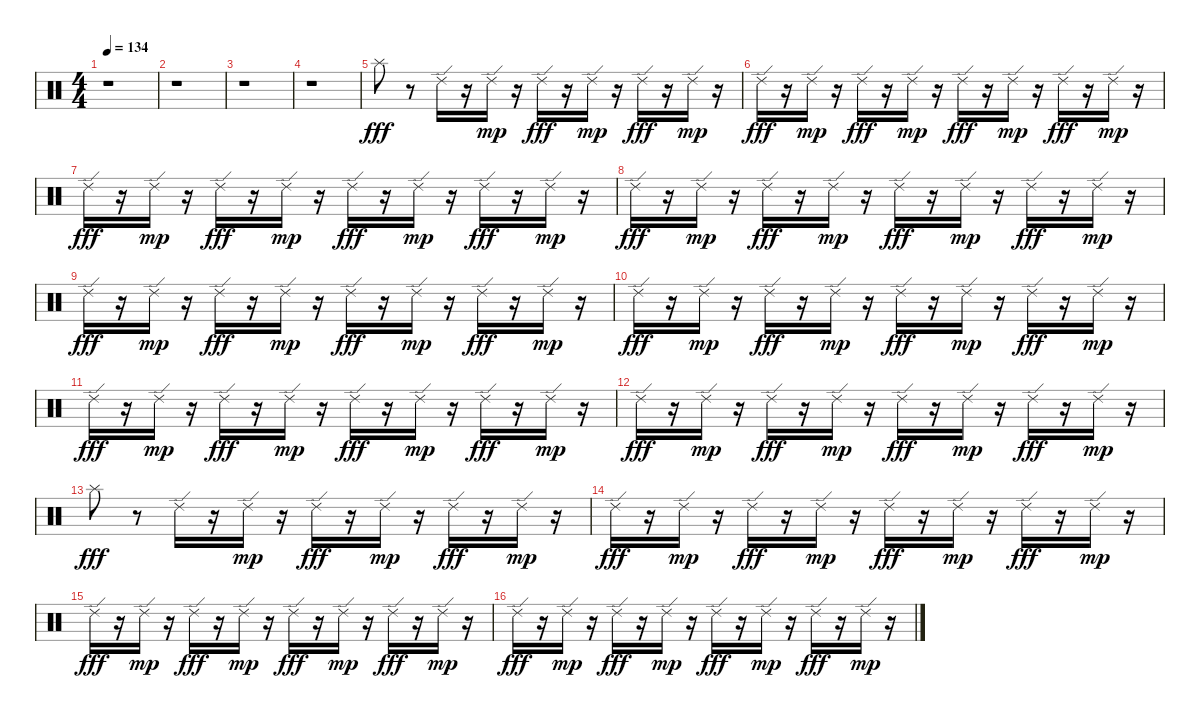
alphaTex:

\track "" {instrument percussion}
\staff {score}
\articulation defaults
\ts (4 4)
\tempo 134
\clef neutral
\ks c
r.1{dy fff} |
r.1 |
r.1 |
r.1 |
"Splash (hit)".8 r.8 "Ride (edge) 2".16 r.16 "Ride (edge) 2".16{dy mp} r.16 "Ride (edge) 2".16{dy fff} r.16 "Ride (edge) 2".16{dy mp} r.16 "Ride (edge) 2".16{dy fff} r.16 "Ride (edge) 2".16{dy mp} r.16 |
"Ride (edge) 2".16{dy fff} r.16 "Ride (edge) 2".16{dy mp} r.16 "Ride (edge) 2".16{dy fff} r.16 "Ride (edge) 2".16{dy mp} r.16 "Ride (edge) 2".16{dy fff} r.16 "Ride (edge) 2".16{dy mp} r.16 "Ride (edge) 2".16{dy fff} r.16 "Ride (edge) 2".16{dy mp} r.16 |
"Ride (edge) 2".16{dy fff} r.16 "Ride (edge) 2".16{dy mp} r.16 "Ride (edge) 2".16{dy fff} r.16 "Ride (edge) 2".16{dy mp} r.16 "Ride (edge) 2".16{dy fff} r.16 "Ride (edge) 2".16{dy mp} r.16 "Ride (edge) 2".16{dy fff} r.16 "Ride (edge) 2".16{dy mp} r.16 |
"Ride (edge) 2".16{dy fff} r.16 "Ride (edge) 2".16{dy mp} r.16 "Ride (edge) 2".16{dy fff} r.16 "Ride (edge) 2".16{dy mp} r.16 "Ride (edge) 2".16{dy fff} r.16 "Ride (edge) 2".16{dy mp} r.16 "Ride (edge) 2".16{dy fff} r.16 "Ride (edge) 2".16{dy mp} r.16 |
"Ride (edge) 2".16{dy fff} r.16 "Ride (edge) 2".16{dy mp} r.16 "Ride (edge) 2".16{dy fff} r.16 "Ride (edge) 2".16{dy mp} r.16 "Ride (edge) 2".16{dy fff} r.16 "Ride (edge) 2".16{dy mp} r.16 "Ride (edge) 2".16{dy fff} r.16 "Ride (edge) 2".16{dy mp} r.16 |
"Ride (edge) 2".16{dy fff} r.16 "Ride (edge) 2".16{dy mp} r.16 "Ride (edge) 2".16{dy fff} r.16 "Ride (edge) 2".16{dy mp} r.16 "Ride (edge) 2".16{dy fff} r.16 "Ride (edge) 2".16{dy mp} r.16 "Ride (edge) 2".16{dy fff} r.16 "Ride (edge) 2".16{dy mp} r.16 |
"Ride (edge) 2".16{dy fff} r.16 "Ride (edge) 2".16{dy mp} r.16 "Ride (edge) 2".16{dy fff} r.16 "Ride (edge) 2".16{dy mp} r.16 "Ride (edge) 2".16{dy fff} r.16 "Ride (edge) 2".16{dy mp} r.16 "Ride (edge) 2".16{dy fff} r.16 "Ride (edge) 2".16{dy mp} r.16 |
"Ride (edge) 2".16{dy fff} r.16 "Ride (edge) 2".16{dy mp} r.16 "Ride (edge) 2".16{dy fff} r.16 "Ride (edge) 2".16{dy mp} r.16 "Ride (edge) 2".16{dy fff} r.16 "Ride (edge) 2".16{dy mp} r.16 "Ride (edge) 2".16{dy fff} r.16 "Ride (edge) 2".16{dy mp} r.16 |
"Splash (hit)".8{dy fff} r.8 "Ride (edge) 2".16 r.16 "Ride (edge) 2".16{dy mp} r.16 "Ride (edge) 2".16{dy fff} r.16 "Ride (edge) 2".16{dy mp} r.16 "Ride (edge) 2".16{dy fff} r.16 "Ride (edge) 2".16{dy mp} r.16 |
"Ride (edge) 2".16{dy fff} r.16 "Ride (edge) 2".16{dy mp} r.16 "Ride (edge) 2".16{dy fff} r.16 "Ride (edge) 2".16{dy mp} r.16 "Ride (edge) 2".16{dy fff} r.16 "Ride (edge) 2".16{dy mp} r.16 "Ride (edge) 2".16{dy fff} r.16 "Ride (edge) 2".16{dy mp} r.16 |
"Ride (edge) 2".16{dy fff} r.16 "Ride (edge) 2".16{dy mp} r.16 "Ride (edge) 2".16{dy fff} r.16 "Ride (edge) 2".16{dy mp} r.16 "Ride (edge) 2".16{dy fff} r.16 "Ride (edge) 2".16{dy mp} r.16 "Ride (edge) 2".16{dy fff} r.16 "Ride (edge) 2".16{dy mp} r.16 |
"Ride (edge) 2".16{dy fff} r.16 "Ride (edge) 2".16{dy mp} r.16 "Ride (edge) 2".16{dy fff} r.16 "Ride (edge) 2".16{dy mp} r.16 "Ride (edge) 2".16{dy fff} r.16 "Ride (edge) 2".16{dy mp} r.16 "Ride (edge) 2".16{dy fff} r.16 "Ride (edge) 2".16{dy mp} r.16
